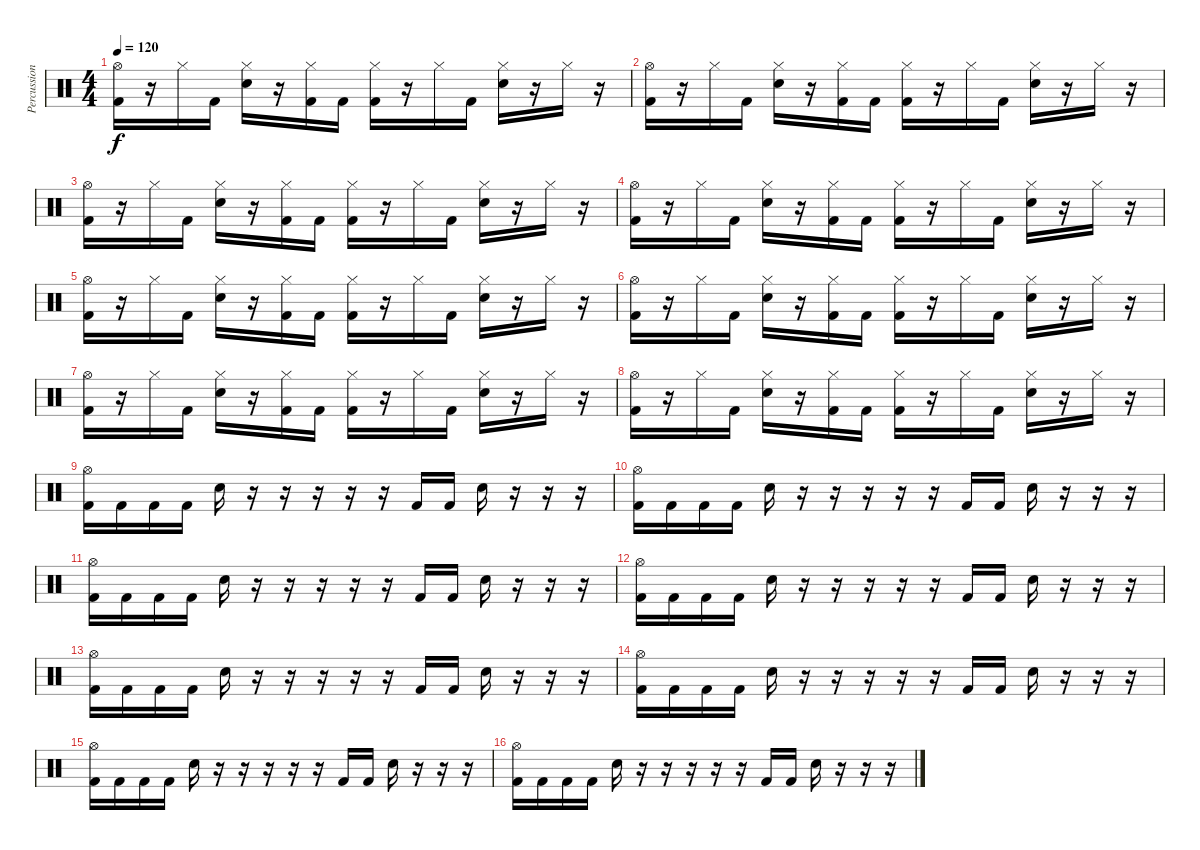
\track ("Percussions" "Percussion") {instrument percussion}
\staff {score}
\articulation defaults
\ts (4 4)
\tempo 120
\clef neutral
\ks c
("Hi-Hat (open)" "Kick (hit) 2").16{dy f} r.16 "Hi-Hat (closed)".16 "Kick (hit) 2".16 ("Hi-Hat (closed)" "Snare (hit) 2").16 r.16 ("Hi-Hat (closed)" "Kick (hit) 2").16 "Kick (hit) 2".16 ("Hi-Hat (closed)" "Kick (hit) 2").16 r.16 "Hi-Hat (closed)".16 "Kick (hit) 2".16 ("Hi-Hat (closed)" "Snare (hit) 2").16 r.16 "Hi-Hat (closed)".16 r.16 |
("Hi-Hat (open)" "Kick (hit) 2").16 r.16 "Hi-Hat (closed)".16 "Kick (hit) 2".16 ("Hi-Hat (closed)" "Snare (hit) 2").16 r.16 ("Hi-Hat (closed)" "Kick (hit) 2").16 "Kick (hit) 2".16 ("Hi-Hat (closed)" "Kick (hit) 2").16 r.16 "Hi-Hat (closed)".16 "Kick (hit) 2".16 ("Hi-Hat (closed)" "Snare (hit) 2").16 r.16 "Hi-Hat (closed)".16 r.16 |
("Hi-Hat (open)" "Kick (hit) 2").16 r.16 "Hi-Hat (closed)".16 "Kick (hit) 2".16 ("Hi-Hat (closed)" "Snare (hit) 2").16 r.16 ("Hi-Hat (closed)" "Kick (hit) 2").16 "Kick (hit) 2".16 ("Hi-Hat (closed)" "Kick (hit) 2").16 r.16 "Hi-Hat (closed)".16 "Kick (hit) 2".16 ("Hi-Hat (closed)" "Snare (hit) 2").16 r.16 "Hi-Hat (closed)".16 r.16 |
("Hi-Hat (open)" "Kick (hit) 2").16 r.16 "Hi-Hat (closed)".16 "Kick (hit) 2".16 ("Hi-Hat (closed)" "Snare (hit) 2").16 r.16 ("Hi-Hat (closed)" "Kick (hit) 2").16 "Kick (hit) 2".16 ("Hi-Hat (closed)" "Kick (hit) 2").16 r.16 "Hi-Hat (closed)".16 "Kick (hit) 2".16 ("Hi-Hat (closed)" "Snare (hit) 2").16 r.16 "Hi-Hat (closed)".16 r.16 |
("Hi-Hat (open)" "Kick (hit) 2").16 r.16 "Hi-Hat (closed)".16 "Kick (hit) 2".16 ("Hi-Hat (closed)" "Snare (hit) 2").16 r.16 ("Hi-Hat (closed)" "Kick (hit) 2").16 "Kick (hit) 2".16 ("Hi-Hat (closed)" "Kick (hit) 2").16 r.16 "Hi-Hat (closed)".16 "Kick (hit) 2".16 ("Hi-Hat (closed)" "Snare (hit) 2").16 r.16 "Hi-Hat (closed)".16 r.16 |
("Hi-Hat (open)" "Kick (hit) 2").16 r.16 "Hi-Hat (closed)".16 "Kick (hit) 2".16 ("Hi-Hat (closed)" "Snare (hit) 2").16 r.16 ("Hi-Hat (closed)" "Kick (hit) 2").16 "Kick (hit) 2".16 ("Hi-Hat (closed)" "Kick (hit) 2").16 r.16 "Hi-Hat (closed)".16 "Kick (hit) 2".16 ("Hi-Hat (closed)" "Snare (hit) 2").16 r.16 "Hi-Hat (closed)".16 r.16 |
("Hi-Hat (open)" "Kick (hit) 2").16 r.16 "Hi-Hat (closed)".16 "Kick (hit) 2".16 ("Hi-Hat (closed)" "Snare (hit) 2").16 r.16 ("Hi-Hat (closed)" "Kick (hit) 2").16 "Kick (hit) 2".16 ("Hi-Hat (closed)" "Kick (hit) 2").16 r.16 "Hi-Hat (closed)".16 "Kick (hit) 2".16 ("Hi-Hat (closed)" "Snare (hit) 2").16 r.16 "Hi-Hat (closed)".16 r.16 |
("Hi-Hat (open)" "Kick (hit) 2").16 r.16 "Hi-Hat (closed)".16 "Kick (hit) 2".16 ("Hi-Hat (closed)" "Snare (hit) 2").16 r.16 ("Hi-Hat (closed)" "Kick (hit) 2").16 "Kick (hit) 2".16 ("Hi-Hat (closed)" "Kick (hit) 2").16 r.16 "Hi-Hat (closed)".16 "Kick (hit) 2".16 ("Hi-Hat (closed)" "Snare (hit) 2").16 r.16 "Hi-Hat (closed)".16 r.16 |
("Hi-Hat (open)" "Kick (hit) 2").16 "Kick (hit) 2".16 "Kick (hit) 2".16 "Kick (hit) 2".16 "Snare (hit) 2".16 r.16 r.16 r.16 r.16 r.16 "Kick (hit) 2".16 "Kick (hit) 2".16 "Snare (hit) 2".16 r.16 r.16 r.16 |
("Hi-Hat (open)" "Kick (hit) 2").16 "Kick (hit) 2".16 "Kick (hit) 2".16 "Kick (hit) 2".16 "Snare (hit) 2".16 r.16 r.16 r.16 r.16 r.16 "Kick (hit) 2".16 "Kick (hit) 2".16 "Snare (hit) 2".16 r.16 r.16 r.16 |
("Hi-Hat (open)" "Kick (hit) 2").16 "Kick (hit) 2".16 "Kick (hit) 2".16 "Kick (hit) 2".16 "Snare (hit) 2".16 r.16 r.16 r.16 r.16 r.16 "Kick (hit) 2".16 "Kick (hit) 2".16 "Snare (hit) 2".16 r.16 r.16 r.16 |
("Hi-Hat (open)" "Kick (hit) 2").16 "Kick (hit) 2".16 "Kick (hit) 2".16 "Kick (hit) 2".16 "Snare (hit) 2".16 r.16 r.16 r.16 r.16 r.16 "Kick (hit) 2".16 "Kick (hit) 2".16 "Snare (hit) 2".16 r.16 r.16 r.16 |
("Hi-Hat (open)" "Kick (hit) 2").16 "Kick (hit) 2".16 "Kick (hit) 2".16 "Kick (hit) 2".16 "Snare (hit) 2".16 r.16 r.16 r.16 r.16 r.16 "Kick (hit) 2".16 "Kick (hit) 2".16 "Snare (hit) 2".16 r.16 r.16 r.16 |
("Hi-Hat (open)" "Kick (hit) 2").16 "Kick (hit) 2".16 "Kick (hit) 2".16 "Kick (hit) 2".16 "Snare (hit) 2".16 r.16 r.16 r.16 r.16 r.16 "Kick (hit) 2".16 "Kick (hit) 2".16 "Snare (hit) 2".16 r.16 r.16 r.16 |
("Hi-Hat (open)" "Kick (hit) 2").16 "Kick (hit) 2".16 "Kick (hit) 2".16 "Kick (hit) 2".16 "Snare (hit) 2".16 r.16 r.16 r.16 r.16 r.16 "Kick (hit) 2".16 "Kick (hit) 2".16 "Snare (hit) 2".16 r.16 r.16 r.16 |
("Hi-Hat (open)" "Kick (hit) 2").16 "Kick (hit) 2".16 "Kick (hit) 2".16 "Kick (hit) 2".16 "Snare (hit) 2".16 r.16 r.16 r.16 r.16 r.16 "Kick (hit) 2".16 "Kick (hit) 2".16 "Snare (hit) 2".16 r.16 r.16 r.16
